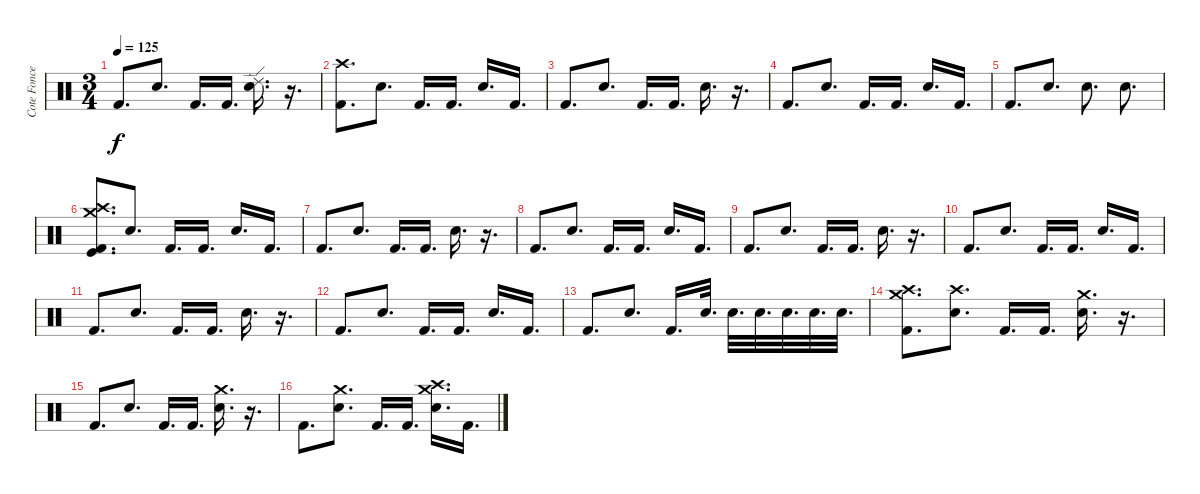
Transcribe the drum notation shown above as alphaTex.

\track ("Cote Foncea" "Cote Fonce") {instrument percussion}
\staff {score}
\articulation defaults
\ts (3 4)
\tempo 125
\clef neutral
\ks c "Kick (hit) 2".8{d dy f} "Snare (hit) 2".8{d} "Kick (hit) 2".16{d} "Kick (hit) 2".16{d}
("Ride (edge) 2" "Snare (hit) 2").16{d} r.16{d} |
("Crash high (hit)" "Kick (hit) 2").8{d} "Snare (hit) 2".8{d} "Kick (hit) 2".16{d} "Kick (hit) 2".16{d} "Snare (hit) 2".16{d} "Kick (hit) 2".16{d} |
"Kick (hit) 2".8{d} "Snare (hit) 2".8{d} "Kick (hit) 2".16{d} "Kick (hit) 2".16{d} "Snare (hit) 2".16{d} r.16{d} |
"Kick (hit) 2".8{d} "Snare (hit) 2".8{d} "Kick (hit) 2".16{d} "Kick (hit) 2".16{d} "Snare (hit) 2".16{d} "Kick (hit) 2".16{d} |
"Kick (hit) 2".8{d} "Snare (hit) 2".8{d} "Snare (hit) 2".8{d} "Snare (hit) 2".8{d} |
("Crash high (hit)" "Crash medium (hit)" "Kick (hit)" "Kick (hit) 2").8{d} "Snare (hit) 2".8{d} "Kick (hit) 2".16{d} "Kick (hit) 2".16{d} "Snare (hit) 2".16{d} "Kick (hit) 2".16{d} |
"Kick (hit) 2".8{d} "Snare (hit) 2".8{d} "Kick (hit) 2".16{d} "Kick (hit) 2".16{d} "Snare (hit) 2".16{d} r.16{d} |
"Kick (hit) 2".8{d} "Snare (hit) 2".8{d} "Kick (hit) 2".16{d} "Kick (hit) 2".16{d} "Snare (hit) 2".16{d} "Kick (hit) 2".16{d} |
"Kick (hit) 2".8{d} "Snare (hit) 2".8{d} "Kick (hit) 2".16{d} "Kick (hit) 2".16{d} "Snare (hit) 2".16{d} r.16{d} |
"Kick (hit) 2".8{d} "Snare (hit) 2".8{d} "Kick (hit) 2".16{d} "Kick (hit) 2".16{d} "Snare (hit) 2".16{d} "Kick (hit) 2".16{d} |
"Kick (hit) 2".8{d} "Snare (hit) 2".8{d} "Kick (hit) 2".16{d} "Kick (hit) 2".16{d} "Snare (hit) 2".16{d} r.16{d} |
"Kick (hit) 2".8{d} "Snare (hit) 2".8{d} "Kick (hit) 2".16{d} "Kick (hit) 2".16{d} "Snare (hit) 2".16{d} "Kick (hit) 2".16{d} |
"Kick (hit) 2".8{d} "Snare (hit) 2".8{d} "Kick (hit) 2".16{d} "Snare (hit) 2".32{d} "Snare (hit) 2".32{d} "Snare (hit) 2".32{d} "Snare (hit) 2".32{d} "Snare (hit) 2".32{d} "Snare (hit) 2".32{d} |
("Crash high (hit)" "Crash medium (hit)" "Kick (hit) 2").8{d} ("Crash high (hit)" "Snare (hit) 2").8{d} "Kick (hit) 2".16{d} "Kick (hit) 2".16{d} ("Crash medium (hit)" "Snare (hit) 2").16{d} r.16{d} |
"Kick (hit) 2".8{d} "Snare (hit) 2".8{d} "Kick (hit) 2".16{d} "Kick (hit) 2".16{d} ("Crash medium (hit)" "Snare (hit) 2").16{d} r.16{d} |
"Kick (hit) 2".8{d} ("Crash medium (hit)" "Snare (hit) 2").8{d} "Kick (hit) 2".16{d} "Kick (hit) 2".16{d} ("Crash high (hit)" "Crash medium (hit)" "Snare (hit) 2").16{d} "Kick (hit) 2".16{d}
